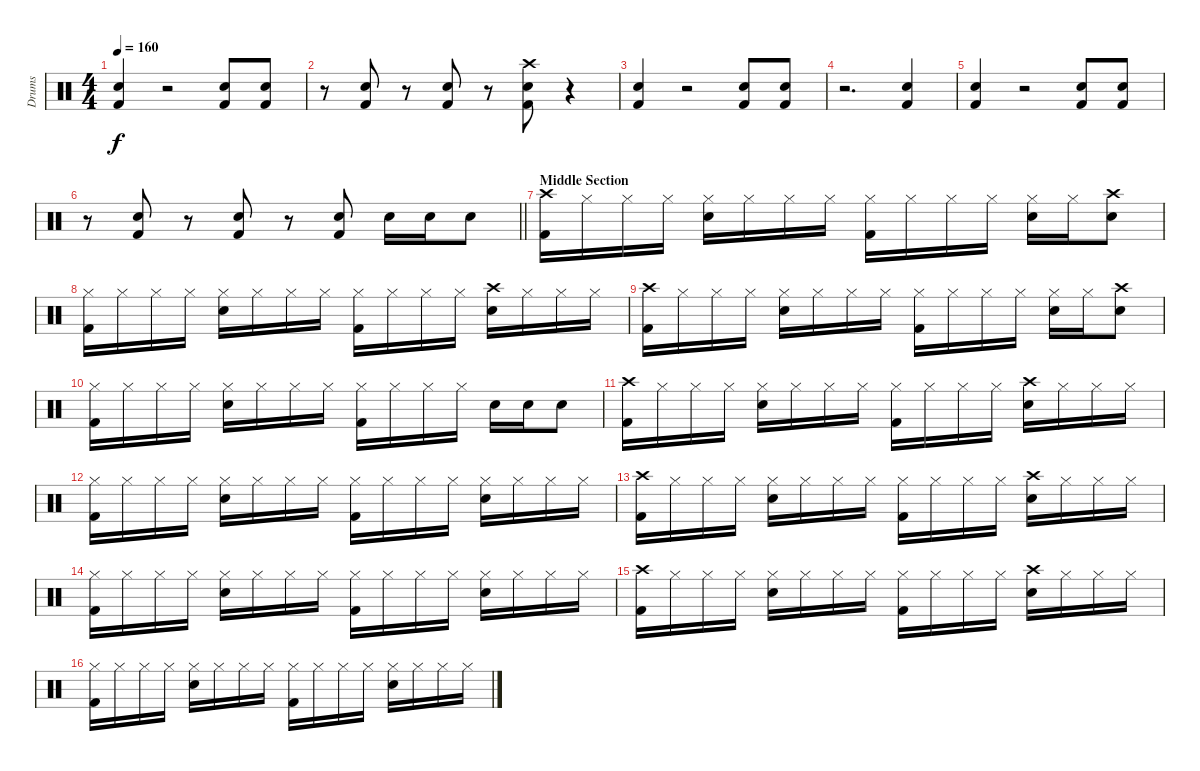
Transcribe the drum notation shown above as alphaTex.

\track ("Drums" "Drums") {instrument percussion}
\staff {score}
\articulation defaults
\ts (4 4)
\tempo 160
\clef neutral
\ks c
("Snare (hit) 2" "Kick (hit) 2").4{dy f} r.2 ("Snare (hit) 2" "Kick (hit) 2").8 ("Snare (hit) 2" "Kick (hit) 2").8 |
r.8 ("Snare (hit) 2" "Kick (hit) 2").8 r.8 ("Snare (hit) 2" "Kick (hit) 2").8 r.8 ("Crash high (hit)" "Snare (hit) 2" "Kick (hit) 2").8 r.4 |
("Snare (hit) 2" "Kick (hit) 2").4 r.2 ("Snare (hit) 2" "Kick (hit) 2").8 ("Snare (hit) 2" "Kick (hit) 2").8 |
r.2{d} ("Snare (hit) 2" "Kick (hit) 2").4 |
("Snare (hit) 2" "Kick (hit) 2").4 r.2 ("Snare (hit) 2" "Kick (hit) 2").8 ("Snare (hit) 2" "Kick (hit) 2").8 |
\barLineRight lightlight
r.8 ("Snare (hit) 2" "Kick (hit) 2").8 r.8 ("Snare (hit) 2" "Kick (hit) 2").8 r.8 ("Snare (hit) 2" "Kick (hit) 2").8 "Snare (hit) 2".16 "Snare (hit) 2".16 "Snare (hit) 2".8 |
\section ("" "Middle Section")
("Crash high (hit)" "Kick (hit) 2").16 "Hi-Hat (closed)".16 "Hi-Hat (closed)".16 "Hi-Hat (closed)".16 ("Hi-Hat (closed)" "Snare (hit) 2").16 "Hi-Hat (closed)".16 "Hi-Hat (closed)".16 "Hi-Hat (closed)".16 ("Hi-Hat (closed)" "Kick (hit) 2").16 "Hi-Hat (closed)".16 "Hi-Hat (closed)".16 "Hi-Hat (closed)".16 ("Hi-Hat (closed)" "Snare (hit) 2").16 "Hi-Hat (closed)".16 ("Crash high (hit)" "Snare (hit) 2").8 |
("Hi-Hat (closed)" "Kick (hit) 2").16 "Hi-Hat (closed)".16 "Hi-Hat (closed)".16 "Hi-Hat (closed)".16 ("Hi-Hat (closed)" "Snare (hit) 2").16 "Hi-Hat (closed)".16 "Hi-Hat (closed)".16 "Hi-Hat (closed)".16 ("Hi-Hat (closed)" "Kick (hit) 2").16 "Hi-Hat (closed)".16 "Hi-Hat (closed)".16 "Hi-Hat (closed)".16 ("Crash high (hit)" "Snare (hit) 2").16 "Hi-Hat (closed)".16 "Hi-Hat (closed)".16 "Hi-Hat (closed)".16 |
("Crash high (hit)" "Kick (hit) 2").16 "Hi-Hat (closed)".16 "Hi-Hat (closed)".16 "Hi-Hat (closed)".16 ("Hi-Hat (closed)" "Snare (hit) 2").16 "Hi-Hat (closed)".16 "Hi-Hat (closed)".16 "Hi-Hat (closed)".16 ("Hi-Hat (closed)" "Kick (hit) 2").16 "Hi-Hat (closed)".16 "Hi-Hat (closed)".16 "Hi-Hat (closed)".16 ("Hi-Hat (closed)" "Snare (hit) 2").16 "Hi-Hat (closed)".16 ("Crash high (hit)" "Snare (hit) 2").8 |
("Hi-Hat (closed)" "Kick (hit) 2").16 "Hi-Hat (closed)".16 "Hi-Hat (closed)".16 "Hi-Hat (closed)".16 ("Hi-Hat (closed)" "Snare (hit) 2").16 "Hi-Hat (closed)".16 "Hi-Hat (closed)".16 "Hi-Hat (closed)".16 ("Hi-Hat (closed)" "Kick (hit) 2").16 "Hi-Hat (closed)".16 "Hi-Hat (closed)".16 "Hi-Hat (closed)".16 "Snare (hit) 2".16 "Snare (hit) 2".16 "Snare (hit) 2".8 |
("Crash high (hit)" "Kick (hit) 2").16 "Hi-Hat (closed)".16 "Hi-Hat (closed)".16 "Hi-Hat (closed)".16 ("Hi-Hat (closed)" "Snare (hit) 2").16 "Hi-Hat (closed)".16 "Hi-Hat (closed)".16 "Hi-Hat (closed)".16 ("Hi-Hat (closed)" "Kick (hit) 2").16 "Hi-Hat (closed)".16 "Hi-Hat (closed)".16 "Hi-Hat (closed)".16 ("Crash high (hit)" "Snare (hit) 2").16 "Hi-Hat (closed)".16 "Hi-Hat (closed)".16 "Hi-Hat (closed)".16 |
("Hi-Hat (closed)" "Kick (hit) 2").16 "Hi-Hat (closed)".16 "Hi-Hat (closed)".16 "Hi-Hat (closed)".16 ("Hi-Hat (closed)" "Snare (hit) 2").16 "Hi-Hat (closed)".16 "Hi-Hat (closed)".16 "Hi-Hat (closed)".16 ("Hi-Hat (closed)" "Kick (hit) 2").16 "Hi-Hat (closed)".16 "Hi-Hat (closed)".16 "Hi-Hat (closed)".16 ("Hi-Hat (closed)" "Snare (hit) 2").16 "Hi-Hat (closed)".16 "Hi-Hat (closed)".16 "Hi-Hat (closed)".16 |
("Crash high (hit)" "Kick (hit) 2").16 "Hi-Hat (closed)".16 "Hi-Hat (closed)".16 "Hi-Hat (closed)".16 ("Hi-Hat (closed)" "Snare (hit) 2").16 "Hi-Hat (closed)".16 "Hi-Hat (closed)".16 "Hi-Hat (closed)".16 ("Hi-Hat (closed)" "Kick (hit) 2").16 "Hi-Hat (closed)".16 "Hi-Hat (closed)".16 "Hi-Hat (closed)".16 ("Crash high (hit)" "Snare (hit) 2").16 "Hi-Hat (closed)".16 "Hi-Hat (closed)".16 "Hi-Hat (closed)".16 |
("Hi-Hat (closed)" "Kick (hit) 2").16 "Hi-Hat (closed)".16 "Hi-Hat (closed)".16 "Hi-Hat (closed)".16 ("Hi-Hat (closed)" "Snare (hit) 2").16 "Hi-Hat (closed)".16 "Hi-Hat (closed)".16 "Hi-Hat (closed)".16 ("Hi-Hat (closed)" "Kick (hit) 2").16 "Hi-Hat (closed)".16 "Hi-Hat (closed)".16 "Hi-Hat (closed)".16 ("Hi-Hat (closed)" "Snare (hit) 2").16 "Hi-Hat (closed)".16 "Hi-Hat (closed)".16 "Hi-Hat (closed)".16 |
("Crash high (hit)" "Kick (hit) 2").16 "Hi-Hat (closed)".16 "Hi-Hat (closed)".16 "Hi-Hat (closed)".16 ("Hi-Hat (closed)" "Snare (hit) 2").16 "Hi-Hat (closed)".16 "Hi-Hat (closed)".16 "Hi-Hat (closed)".16 ("Hi-Hat (closed)" "Kick (hit) 2").16 "Hi-Hat (closed)".16 "Hi-Hat (closed)".16 "Hi-Hat (closed)".16 ("Crash high (hit)" "Snare (hit) 2").16 "Hi-Hat (closed)".16 "Hi-Hat (closed)".16 "Hi-Hat (closed)".16 |
("Hi-Hat (closed)" "Kick (hit) 2").16 "Hi-Hat (closed)".16 "Hi-Hat (closed)".16 "Hi-Hat (closed)".16 ("Hi-Hat (closed)" "Snare (hit) 2").16 "Hi-Hat (closed)".16 "Hi-Hat (closed)".16 "Hi-Hat (closed)".16 ("Hi-Hat (closed)" "Kick (hit) 2").16 "Hi-Hat (closed)".16 "Hi-Hat (closed)".16 "Hi-Hat (closed)".16 ("Hi-Hat (closed)" "Snare (hit) 2").16 "Hi-Hat (closed)".16 "Hi-Hat (closed)".16 "Hi-Hat (closed)".16
